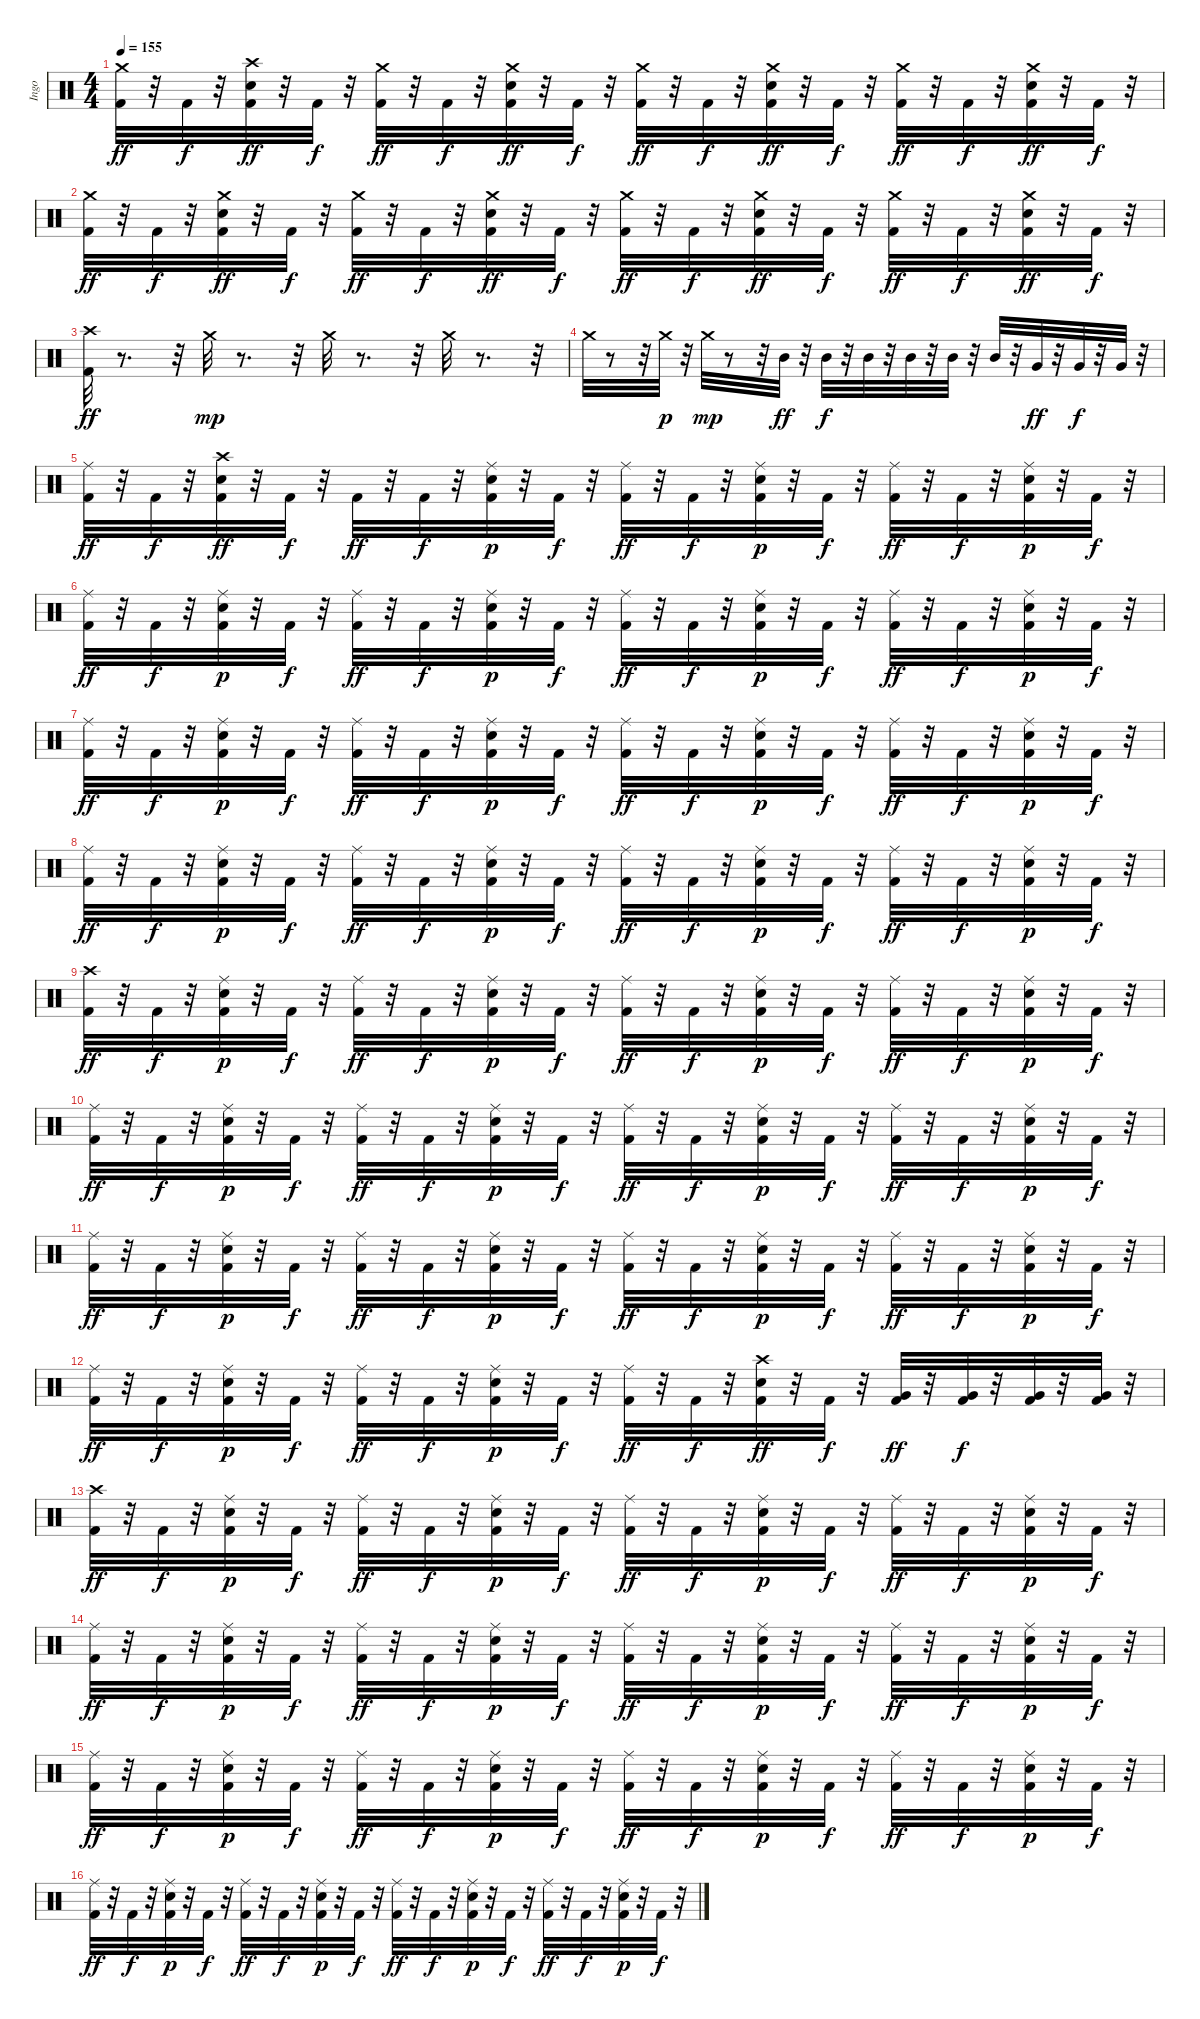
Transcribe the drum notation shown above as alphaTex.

\track ("Ingo" "Ingo") {instrument percussion}
\staff {score}
\articulation defaults
\ts (4 4)
\tempo 155
\clef neutral
\ks c
("Crash medium (hit)" "Kick (hit) 2").32{dy ff} r.32 "Kick (hit) 2".32{dy f} r.32 ("Snare (hit) 2" "Crash high (hit)" "Kick (hit) 2").32{dy ff} r.32 "Kick (hit) 2".32{dy f} r.32 ("Crash medium (hit)" "Kick (hit) 2").32{dy ff} r.32 "Kick (hit) 2".32{dy f} r.32 ("Kick (hit) 2" "Crash medium (hit)" "Snare (hit) 2").32{dy ff} r.32 "Kick (hit) 2".32{dy f} r.32 ("Crash medium (hit)" "Kick (hit) 2").32{dy ff} r.32 "Kick (hit) 2".32{dy f} r.32 ("Kick (hit) 2" "Crash medium (hit)" "Snare (hit) 2").32{dy ff} r.32 "Kick (hit) 2".32{dy f} r.32 ("Crash medium (hit)" "Kick (hit) 2").32{dy ff} r.32 "Kick (hit) 2".32{dy f} r.32 ("Kick (hit) 2" "Crash medium (hit)" "Snare (hit) 2").32{dy ff} r.32 "Kick (hit) 2".32{dy f} r.32 |
("Crash medium (hit)" "Kick (hit) 2").32{dy ff} r.32 "Kick (hit) 2".32{dy f} r.32 ("Kick (hit) 2" "Crash medium (hit)" "Snare (hit) 2").32{dy ff} r.32 "Kick (hit) 2".32{dy f} r.32 ("Crash medium (hit)" "Kick (hit) 2").32{dy ff} r.32 "Kick (hit) 2".32{dy f} r.32 ("Kick (hit) 2" "Crash medium (hit)" "Snare (hit) 2").32{dy ff} r.32 "Kick (hit) 2".32{dy f} r.32 ("Crash medium (hit)" "Kick (hit) 2").32{dy ff} r.32 "Kick (hit) 2".32{dy f} r.32 ("Kick (hit) 2" "Crash medium (hit)" "Snare (hit) 2").32{dy ff} r.32 "Kick (hit) 2".32{dy f} r.32 ("Crash medium (hit)" "Kick (hit) 2").32{dy ff} r.32 "Kick (hit) 2".32{dy f} r.32 ("Kick (hit) 2" "Crash medium (hit)" "Snare (hit) 2").32{dy ff} r.32 "Kick (hit) 2".32{dy f} r.32 |
("Crash high (hit)" "Kick (hit) 2").32{dy ff} r.8{d} r.32 "Crash medium (hit)".32{dy mp} r.8{d} r.32 "Crash medium (hit)".32 r.8{d} r.32 "Crash medium (hit)".32 r.8{d} r.32 |
"Crash medium (hit)".32 r.8 r.32 "Crash medium (hit)".32{dy p} r.32 "Crash medium (hit)".32{dy mp} r.8 r.32 "Mid Tom (hit)".32{dy ff} r.32 "Mid Tom (hit)".32{dy f} r.32 "Mid Tom (hit)".32 r.32 "Mid Tom (hit)".32 r.32 "Mid Tom (hit)".32 r.32 "Mid Tom (hit)".32 r.32 "Very Low Tom (hit)".32{dy ff} r.32 "Very Low Tom (hit)".32{dy f} r.32 "Very Low Tom (hit)".32 r.32 |
("Ride (middle)" "Kick (hit) 2").32{dy ff} r.32 "Kick (hit) 2".32{dy f} r.32 ("Kick (hit) 2" "Snare (hit) 2" "Crash high (hit)").32{dy ff} r.32 "Kick (hit) 2".32{dy f} r.32 "Kick (hit) 2".32{dy ff} r.32 "Kick (hit) 2".32{dy f} r.32 ("Kick (hit) 2" "Snare (hit) 2" "Ride (middle)").32{dy p} r.32 "Kick (hit) 2".32{dy f} r.32 ("Ride (middle)" "Kick (hit) 2").32{dy ff} r.32 "Kick (hit) 2".32{dy f} r.32 ("Kick (hit) 2" "Snare (hit) 2" "Ride (middle)").32{dy p} r.32 "Kick (hit) 2".32{dy f} r.32 ("Ride (middle)" "Kick (hit) 2").32{dy ff} r.32 "Kick (hit) 2".32{dy f} r.32 ("Kick (hit) 2" "Snare (hit) 2" "Ride (middle)").32{dy p} r.32 "Kick (hit) 2".32{dy f} r.32 |
("Ride (middle)" "Kick (hit) 2").32{dy ff} r.32 "Kick (hit) 2".32{dy f} r.32 ("Kick (hit) 2" "Snare (hit) 2" "Ride (middle)").32{dy p} r.32 "Kick (hit) 2".32{dy f} r.32 ("Ride (middle)" "Kick (hit) 2").32{dy ff} r.32 "Kick (hit) 2".32{dy f} r.32 ("Kick (hit) 2" "Snare (hit) 2" "Ride (middle)").32{dy p} r.32 "Kick (hit) 2".32{dy f} r.32 ("Ride (middle)" "Kick (hit) 2").32{dy ff} r.32 "Kick (hit) 2".32{dy f} r.32 ("Kick (hit) 2" "Snare (hit) 2" "Ride (middle)").32{dy p} r.32 "Kick (hit) 2".32{dy f} r.32 ("Ride (middle)" "Kick (hit) 2").32{dy ff} r.32 "Kick (hit) 2".32{dy f} r.32 ("Kick (hit) 2" "Snare (hit) 2" "Ride (middle)").32{dy p} r.32 "Kick (hit) 2".32{dy f} r.32 |
("Ride (middle)" "Kick (hit) 2").32{dy ff} r.32 "Kick (hit) 2".32{dy f} r.32 ("Kick (hit) 2" "Snare (hit) 2" "Ride (middle)").32{dy p} r.32 "Kick (hit) 2".32{dy f} r.32 ("Ride (middle)" "Kick (hit) 2").32{dy ff} r.32 "Kick (hit) 2".32{dy f} r.32 ("Kick (hit) 2" "Snare (hit) 2" "Ride (middle)").32{dy p} r.32 "Kick (hit) 2".32{dy f} r.32 ("Ride (middle)" "Kick (hit) 2").32{dy ff} r.32 "Kick (hit) 2".32{dy f} r.32 ("Kick (hit) 2" "Snare (hit) 2" "Ride (middle)").32{dy p} r.32 "Kick (hit) 2".32{dy f} r.32 ("Ride (middle)" "Kick (hit) 2").32{dy ff} r.32 "Kick (hit) 2".32{dy f} r.32 ("Kick (hit) 2" "Snare (hit) 2" "Ride (middle)").32{dy p} r.32 "Kick (hit) 2".32{dy f} r.32 |
("Ride (middle)" "Kick (hit) 2").32{dy ff} r.32 "Kick (hit) 2".32{dy f} r.32 ("Kick (hit) 2" "Snare (hit) 2" "Ride (middle)").32{dy p} r.32 "Kick (hit) 2".32{dy f} r.32 ("Ride (middle)" "Kick (hit) 2").32{dy ff} r.32 "Kick (hit) 2".32{dy f} r.32 ("Kick (hit) 2" "Snare (hit) 2" "Ride (middle)").32{dy p} r.32 "Kick (hit) 2".32{dy f} r.32 ("Ride (middle)" "Kick (hit) 2").32{dy ff} r.32 "Kick (hit) 2".32{dy f} r.32 ("Kick (hit) 2" "Snare (hit) 2" "Ride (middle)").32{dy p} r.32 "Kick (hit) 2".32{dy f} r.32 ("Ride (middle)" "Kick (hit) 2").32{dy ff} r.32 "Kick (hit) 2".32{dy f} r.32 ("Kick (hit) 2" "Snare (hit) 2" "Ride (middle)").32{dy p} r.32 "Kick (hit) 2".32{dy f} r.32 |
("Crash high (hit)" "Kick (hit) 2").32{dy ff} r.32 "Kick (hit) 2".32{dy f} r.32 ("Kick (hit) 2" "Snare (hit) 2" "Ride (middle)").32{dy p} r.32 "Kick (hit) 2".32{dy f} r.32 ("Ride (middle)" "Kick (hit) 2").32{dy ff} r.32 "Kick (hit) 2".32{dy f} r.32 ("Kick (hit) 2" "Snare (hit) 2" "Ride (middle)").32{dy p} r.32 "Kick (hit) 2".32{dy f} r.32 ("Ride (middle)" "Kick (hit) 2").32{dy ff} r.32 "Kick (hit) 2".32{dy f} r.32 ("Kick (hit) 2" "Snare (hit) 2" "Ride (middle)").32{dy p} r.32 "Kick (hit) 2".32{dy f} r.32 ("Ride (middle)" "Kick (hit) 2").32{dy ff} r.32 "Kick (hit) 2".32{dy f} r.32 ("Kick (hit) 2" "Snare (hit) 2" "Ride (middle)").32{dy p} r.32 "Kick (hit) 2".32{dy f} r.32 |
("Ride (middle)" "Kick (hit) 2").32{dy ff} r.32 "Kick (hit) 2".32{dy f} r.32 ("Kick (hit) 2" "Snare (hit) 2" "Ride (middle)").32{dy p} r.32 "Kick (hit) 2".32{dy f} r.32 ("Ride (middle)" "Kick (hit) 2").32{dy ff} r.32 "Kick (hit) 2".32{dy f} r.32 ("Kick (hit) 2" "Snare (hit) 2" "Ride (middle)").32{dy p} r.32 "Kick (hit) 2".32{dy f} r.32 ("Ride (middle)" "Kick (hit) 2").32{dy ff} r.32 "Kick (hit) 2".32{dy f} r.32 ("Kick (hit) 2" "Snare (hit) 2" "Ride (middle)").32{dy p} r.32 "Kick (hit) 2".32{dy f} r.32 ("Ride (middle)" "Kick (hit) 2").32{dy ff} r.32 "Kick (hit) 2".32{dy f} r.32 ("Kick (hit) 2" "Snare (hit) 2" "Ride (middle)").32{dy p} r.32 "Kick (hit) 2".32{dy f} r.32 |
("Ride (middle)" "Kick (hit) 2").32{dy ff} r.32 "Kick (hit) 2".32{dy f} r.32 ("Kick (hit) 2" "Snare (hit) 2" "Ride (middle)").32{dy p} r.32 "Kick (hit) 2".32{dy f} r.32 ("Ride (middle)" "Kick (hit) 2").32{dy ff} r.32 "Kick (hit) 2".32{dy f} r.32 ("Kick (hit) 2" "Snare (hit) 2" "Ride (middle)").32{dy p} r.32 "Kick (hit) 2".32{dy f} r.32 ("Ride (middle)" "Kick (hit) 2").32{dy ff} r.32 "Kick (hit) 2".32{dy f} r.32 ("Kick (hit) 2" "Snare (hit) 2" "Ride (middle)").32{dy p} r.32 "Kick (hit) 2".32{dy f} r.32 ("Ride (middle)" "Kick (hit) 2").32{dy ff} r.32 "Kick (hit) 2".32{dy f} r.32 ("Kick (hit) 2" "Snare (hit) 2" "Ride (middle)").32{dy p} r.32 "Kick (hit) 2".32{dy f} r.32 |
("Ride (middle)" "Kick (hit) 2").32{dy ff} r.32 "Kick (hit) 2".32{dy f} r.32 ("Kick (hit) 2" "Snare (hit) 2" "Ride (middle)").32{dy p} r.32 "Kick (hit) 2".32{dy f} r.32 ("Ride (middle)" "Kick (hit) 2").32{dy ff} r.32 "Kick (hit) 2".32{dy f} r.32 ("Kick (hit) 2" "Snare (hit) 2" "Ride (middle)").32{dy p} r.32 "Kick (hit) 2".32{dy f} r.32 ("Ride (middle)" "Kick (hit) 2").32{dy ff} r.32 "Kick (hit) 2".32{dy f} r.32 ("Snare (hit) 2" "Crash high (hit)" "Kick (hit) 2").32{dy ff} r.32 "Kick (hit) 2".32{dy f} r.32 ("Very Low Tom (hit)" "Kick (hit) 2").32{dy ff} r.32 ("Very Low Tom (hit)" "Kick (hit) 2").32{dy f} r.32 ("Very Low Tom (hit)" "Kick (hit) 2").32 r.32 ("Very Low Tom (hit)" "Kick (hit) 2").32 r.32 |
("Crash high (hit)" "Kick (hit) 2").32{dy ff} r.32 "Kick (hit) 2".32{dy f} r.32 ("Kick (hit) 2" "Snare (hit) 2" "Ride (middle)").32{dy p} r.32 "Kick (hit) 2".32{dy f} r.32 ("Ride (middle)" "Kick (hit) 2").32{dy ff} r.32 "Kick (hit) 2".32{dy f} r.32 ("Kick (hit) 2" "Snare (hit) 2" "Ride (middle)").32{dy p} r.32 "Kick (hit) 2".32{dy f} r.32 ("Ride (middle)" "Kick (hit) 2").32{dy ff} r.32 "Kick (hit) 2".32{dy f} r.32 ("Kick (hit) 2" "Snare (hit) 2" "Ride (middle)").32{dy p} r.32 "Kick (hit) 2".32{dy f} r.32 ("Ride (middle)" "Kick (hit) 2").32{dy ff} r.32 "Kick (hit) 2".32{dy f} r.32 ("Kick (hit) 2" "Snare (hit) 2" "Ride (middle)").32{dy p} r.32 "Kick (hit) 2".32{dy f} r.32 |
("Ride (middle)" "Kick (hit) 2").32{dy ff} r.32 "Kick (hit) 2".32{dy f} r.32 ("Kick (hit) 2" "Snare (hit) 2" "Ride (middle)").32{dy p} r.32 "Kick (hit) 2".32{dy f} r.32 ("Ride (middle)" "Kick (hit) 2").32{dy ff} r.32 "Kick (hit) 2".32{dy f} r.32 ("Kick (hit) 2" "Snare (hit) 2" "Ride (middle)").32{dy p} r.32 "Kick (hit) 2".32{dy f} r.32 ("Ride (middle)" "Kick (hit) 2").32{dy ff} r.32 "Kick (hit) 2".32{dy f} r.32 ("Kick (hit) 2" "Snare (hit) 2" "Ride (middle)").32{dy p} r.32 "Kick (hit) 2".32{dy f} r.32 ("Ride (middle)" "Kick (hit) 2").32{dy ff} r.32 "Kick (hit) 2".32{dy f} r.32 ("Kick (hit) 2" "Snare (hit) 2" "Ride (middle)").32{dy p} r.32 "Kick (hit) 2".32{dy f} r.32 |
("Ride (middle)" "Kick (hit) 2").32{dy ff} r.32 "Kick (hit) 2".32{dy f} r.32 ("Kick (hit) 2" "Snare (hit) 2" "Ride (middle)").32{dy p} r.32 "Kick (hit) 2".32{dy f} r.32 ("Ride (middle)" "Kick (hit) 2").32{dy ff} r.32 "Kick (hit) 2".32{dy f} r.32 ("Kick (hit) 2" "Snare (hit) 2" "Ride (middle)").32{dy p} r.32 "Kick (hit) 2".32{dy f} r.32 ("Ride (middle)" "Kick (hit) 2").32{dy ff} r.32 "Kick (hit) 2".32{dy f} r.32 ("Kick (hit) 2" "Snare (hit) 2" "Ride (middle)").32{dy p} r.32 "Kick (hit) 2".32{dy f} r.32 ("Ride (middle)" "Kick (hit) 2").32{dy ff} r.32 "Kick (hit) 2".32{dy f} r.32 ("Kick (hit) 2" "Snare (hit) 2" "Ride (middle)").32{dy p} r.32 "Kick (hit) 2".32{dy f} r.32 |
("Ride (middle)" "Kick (hit) 2").32{dy ff} r.32 "Kick (hit) 2".32{dy f} r.32 ("Kick (hit) 2" "Snare (hit) 2" "Ride (middle)").32{dy p} r.32 "Kick (hit) 2".32{dy f} r.32 ("Ride (middle)" "Kick (hit) 2").32{dy ff} r.32 "Kick (hit) 2".32{dy f} r.32 ("Kick (hit) 2" "Snare (hit) 2" "Ride (middle)").32{dy p} r.32 "Kick (hit) 2".32{dy f} r.32 ("Ride (middle)" "Kick (hit) 2").32{dy ff} r.32 "Kick (hit) 2".32{dy f} r.32 ("Kick (hit) 2" "Snare (hit) 2" "Ride (middle)").32{dy p} r.32 "Kick (hit) 2".32{dy f} r.32 ("Ride (middle)" "Kick (hit) 2").32{dy ff} r.32 "Kick (hit) 2".32{dy f} r.32 ("Kick (hit) 2" "Snare (hit) 2" "Ride (middle)").32{dy p} r.32 "Kick (hit) 2".32{dy f} r.32
